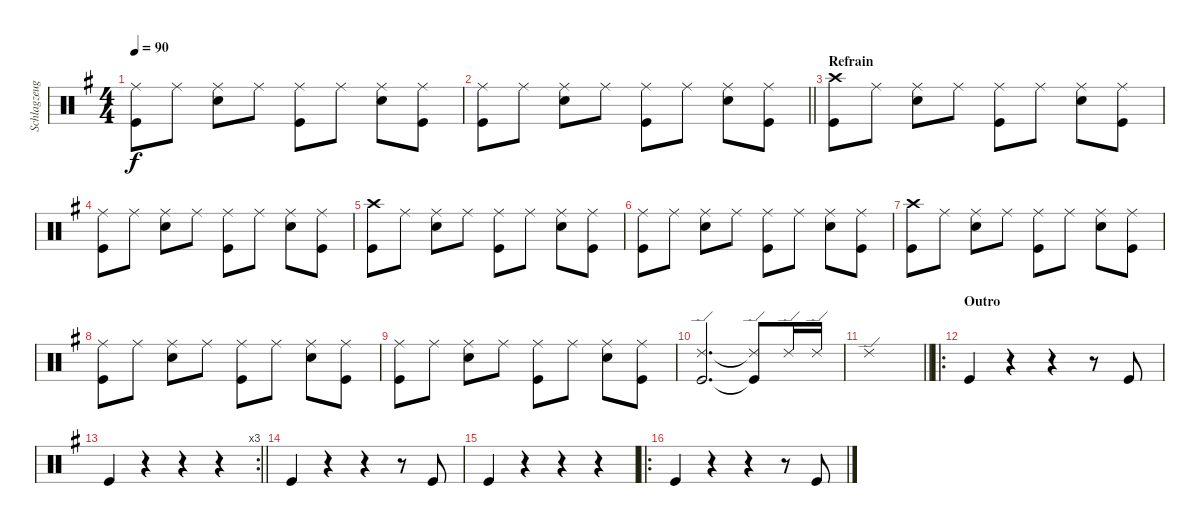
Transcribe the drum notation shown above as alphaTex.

\track ("Schlagzeug" "Schlagzeug") {instrument percussion}
\staff {score}
\articulation defaults
\ts (4 4)
\tempo 90
\clef neutral
\ks g
("Ride (middle)" "Kick (hit)").8{dy f} "Ride (middle)".8 ("Ride (middle)" "Snare (hit) 2").8 "Ride (middle)".8 ("Ride (middle)" "Kick (hit)").8 "Ride (middle)".8 ("Ride (middle)" "Snare (hit) 2").8 ("Ride (middle)" "Kick (hit)").8 |
\barLineRight lightlight
("Ride (middle)" "Kick (hit)").8 "Ride (middle)".8 ("Ride (middle)" "Snare (hit) 2").8 "Ride (middle)".8 ("Ride (middle)" "Kick (hit)").8 "Ride (middle)".8 ("Ride (middle)" "Snare (hit) 2").8 ("Ride (middle)" "Kick (hit)").8 |
\section ("" "Refrain")
("Crash high (hit)" "Kick (hit)").8 "Ride (middle)".8 ("Ride (middle)" "Snare (hit) 2").8 "Ride (middle)".8 ("Ride (middle)" "Kick (hit)").8 "Ride (middle)".8 ("Ride (middle)" "Snare (hit) 2").8 ("Ride (middle)" "Kick (hit)").8 |
("Ride (middle)" "Kick (hit)").8 "Ride (middle)".8 ("Ride (middle)" "Snare (hit) 2").8 "Ride (middle)".8 ("Ride (middle)" "Kick (hit)").8 "Ride (middle)".8 ("Ride (middle)" "Snare (hit) 2").8 ("Ride (middle)" "Kick (hit)").8 |
("Crash high (hit)" "Kick (hit)").8 "Ride (middle)".8 ("Ride (middle)" "Snare (hit) 2").8 "Ride (middle)".8 ("Ride (middle)" "Kick (hit)").8 "Ride (middle)".8 ("Ride (middle)" "Snare (hit) 2").8 ("Ride (middle)" "Kick (hit)").8 |
("Ride (middle)" "Kick (hit)").8 "Ride (middle)".8 ("Ride (middle)" "Snare (hit) 2").8 "Ride (middle)".8 ("Ride (middle)" "Kick (hit)").8 "Ride (middle)".8 ("Ride (middle)" "Snare (hit) 2").8 ("Ride (middle)" "Kick (hit)").8 |
("Crash high (hit)" "Kick (hit)").8 "Ride (middle)".8 ("Ride (middle)" "Snare (hit) 2").8 "Ride (middle)".8 ("Ride (middle)" "Kick (hit)").8 "Ride (middle)".8 ("Ride (middle)" "Snare (hit) 2").8 ("Ride (middle)" "Kick (hit)").8 |
("Ride (middle)" "Kick (hit)").8 "Ride (middle)".8 ("Ride (middle)" "Snare (hit) 2").8 "Ride (middle)".8 ("Ride (middle)" "Kick (hit)").8 "Ride (middle)".8 ("Ride (middle)" "Snare (hit) 2").8 ("Ride (middle)" "Kick (hit)").8 |
("Ride (middle)" "Kick (hit)").8 "Ride (middle)".8 ("Ride (middle)" "Snare (hit) 2").8 "Ride (middle)".8 ("Ride (middle)" "Kick (hit)").8 "Ride (middle)".8 ("Ride (middle)" "Snare (hit) 2").8 ("Ride (middle)" "Kick (hit)").8 |
("Ride (edge) 2" "Kick (hit)").2{d} ("Ride (edge) 2"{t} "Kick (hit)"{t}).8 "Ride (edge) 2".16 "Ride (edge) 2".16 |
\barLineRight lightlight "Ride (edge) 2".1
|
\ro
\section ("" "Outro")
"Kick (hit)".4 r.4 r.4 r.8 "Kick (hit)".8 |
\rc 3
\barLineRight lightlight "Kick (hit)".4
r.4 r.4 r.4 |
"Kick (hit)".4 r.4 r.4 r.8 "Kick (hit)".8 |
"Kick (hit)".4 r.4 r.4 r.4 |
\ro "Kick (hit)".4
r.4 r.4 r.8 "Kick (hit)".8
